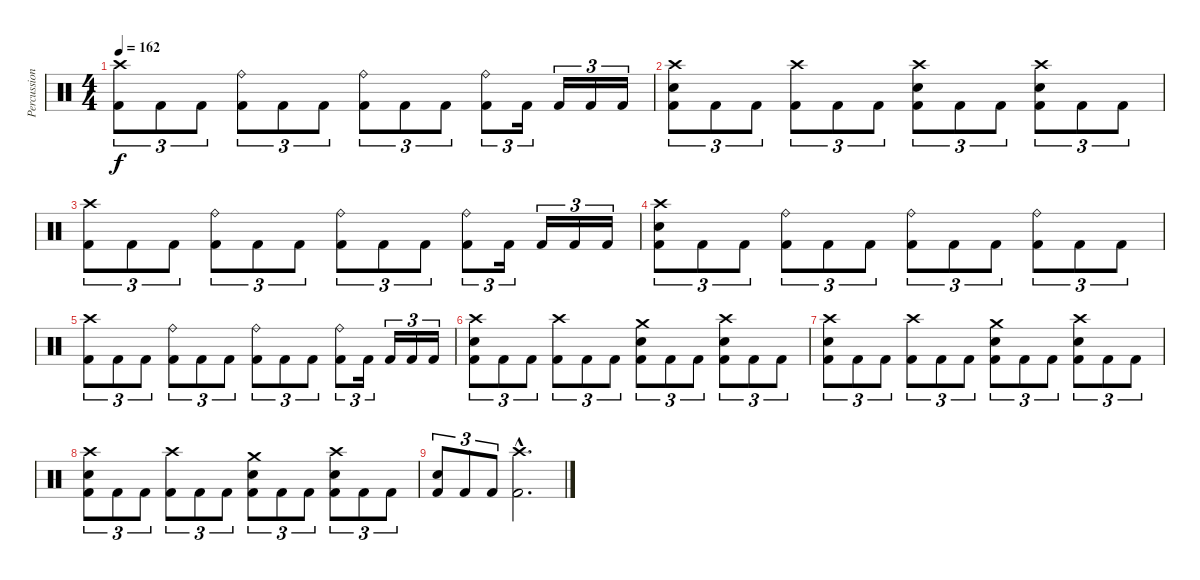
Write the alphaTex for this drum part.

\track ("Percussion" "Percussion") {instrument percussion}
\staff {score}
\articulation defaults
\ts (4 4)
\tempo 162
\clef neutral
\ks c
("Crash high (hit)" "Kick (hit) 2").8{tu (3 2) dy f} "Kick (hit) 2".8{tu (3 2)} "Kick (hit) 2".8{tu (3 2)} ("Ride (bell)" "Kick (hit) 2").8{tu (3 2)} "Kick (hit) 2".8{tu (3 2)} "Kick (hit) 2".8{tu (3 2)} ("Ride (bell)" "Kick (hit) 2").8{tu (3 2)} "Kick (hit) 2".8{tu (3 2)} "Kick (hit) 2".8{tu (3 2)} ("Ride (bell)" "Kick (hit) 2").8{tu (3 2)} "Kick (hit) 2".16{tu (3 2)} "Kick (hit) 2".16{tu (3 2)} "Kick (hit) 2".16{tu (3 2)} "Kick (hit) 2".16{tu (3 2)} |
("Crash high (hit)" "Electric Snare (hit)" "Kick (hit) 2").8{tu (3 2)} "Kick (hit) 2".8{tu (3 2)} "Kick (hit) 2".8{tu (3 2)} ("Crash high (hit)" "Kick (hit) 2").8{tu (3 2)} "Kick (hit) 2".8{tu (3 2)} "Kick (hit) 2".8{tu (3 2)} ("Crash high (hit)" "Electric Snare (hit)" "Kick (hit) 2").8{tu (3 2)} "Kick (hit) 2".8{tu (3 2)} "Kick (hit) 2".8{tu (3 2)} ("Crash high (hit)" "Electric Snare (hit)" "Kick (hit) 2").8{tu (3 2)} "Kick (hit) 2".8{tu (3 2)} "Kick (hit) 2".8{tu (3 2)} |
("Crash high (hit)" "Kick (hit) 2").8{tu (3 2)} "Kick (hit) 2".8{tu (3 2)} "Kick (hit) 2".8{tu (3 2)} ("Ride (bell)" "Kick (hit) 2").8{tu (3 2)} "Kick (hit) 2".8{tu (3 2)} "Kick (hit) 2".8{tu (3 2)} ("Ride (bell)" "Kick (hit) 2").8{tu (3 2)} "Kick (hit) 2".8{tu (3 2)} "Kick (hit) 2".8{tu (3 2)} ("Ride (bell)" "Kick (hit) 2").8{tu (3 2)} "Kick (hit) 2".16{tu (3 2)} "Kick (hit) 2".16{tu (3 2)} "Kick (hit) 2".16{tu (3 2)} "Kick (hit) 2".16{tu (3 2)} |
("Crash high (hit)" "Electric Snare (hit)" "Kick (hit) 2").8{tu (3 2)} "Kick (hit) 2".8{tu (3 2)} "Kick (hit) 2".8{tu (3 2)} ("Ride (bell)" "Kick (hit) 2").8{tu (3 2)} "Kick (hit) 2".8{tu (3 2)} "Kick (hit) 2".8{tu (3 2)} ("Ride (bell)" "Kick (hit) 2").8{tu (3 2)} "Kick (hit) 2".8{tu (3 2)} "Kick (hit) 2".8{tu (3 2)} ("Ride (bell)" "Kick (hit) 2").8{tu (3 2)} "Kick (hit) 2".8{tu (3 2)} "Kick (hit) 2".8{tu (3 2)} |
("Crash high (hit)" "Kick (hit) 2").8{tu (3 2)} "Kick (hit) 2".8{tu (3 2)} "Kick (hit) 2".8{tu (3 2)} ("Ride (bell)" "Kick (hit) 2").8{tu (3 2)} "Kick (hit) 2".8{tu (3 2)} "Kick (hit) 2".8{tu (3 2)} ("Ride (bell)" "Kick (hit) 2").8{tu (3 2)} "Kick (hit) 2".8{tu (3 2)} "Kick (hit) 2".8{tu (3 2)} ("Ride (bell)" "Kick (hit) 2").8{tu (3 2)} "Kick (hit) 2".16{tu (3 2)} "Kick (hit) 2".16{tu (3 2)} "Kick (hit) 2".16{tu (3 2)} "Kick (hit) 2".16{tu (3 2)} |
("Crash high (hit)" "Electric Snare (hit)" "Kick (hit) 2").8{tu (3 2)} "Kick (hit) 2".8{tu (3 2)} "Kick (hit) 2".8{tu (3 2)} ("Crash high (hit)" "Kick (hit) 2").8{tu (3 2)} "Kick (hit) 2".8{tu (3 2)} "Kick (hit) 2".8{tu (3 2)} ("Crash medium (hit)" "Electric Snare (hit)" "Kick (hit) 2").8{tu (3 2)} "Kick (hit) 2".8{tu (3 2)} "Kick (hit) 2".8{tu (3 2)} ("Crash high (hit)" "Electric Snare (hit)" "Kick (hit) 2").8{tu (3 2)} "Kick (hit) 2".8{tu (3 2)} "Kick (hit) 2".8{tu (3 2)} |
("Crash high (hit)" "Electric Snare (hit)" "Kick (hit) 2").8{tu (3 2)} "Kick (hit) 2".8{tu (3 2)} "Kick (hit) 2".8{tu (3 2)} ("Crash high (hit)" "Kick (hit) 2").8{tu (3 2)} "Kick (hit) 2".8{tu (3 2)} "Kick (hit) 2".8{tu (3 2)} ("Crash medium (hit)" "Electric Snare (hit)" "Kick (hit) 2").8{tu (3 2)} "Kick (hit) 2".8{tu (3 2)} "Kick (hit) 2".8{tu (3 2)} ("Crash high (hit)" "Electric Snare (hit)" "Kick (hit) 2").8{tu (3 2)} "Kick (hit) 2".8{tu (3 2)} "Kick (hit) 2".8{tu (3 2)} |
("Crash high (hit)" "Electric Snare (hit)" "Kick (hit) 2").8{tu (3 2)} "Kick (hit) 2".8{tu (3 2)} "Kick (hit) 2".8{tu (3 2)} ("Crash high (hit)" "Kick (hit) 2").8{tu (3 2)} "Kick (hit) 2".8{tu (3 2)} "Kick (hit) 2".8{tu (3 2)} ("Crash medium (hit)" "Electric Snare (hit)" "Kick (hit) 2").8{tu (3 2)} "Kick (hit) 2".8{tu (3 2)} "Kick (hit) 2".8{tu (3 2)} ("Crash high (hit)" "Electric Snare (hit)" "Kick (hit) 2").8{tu (3 2)} "Kick (hit) 2".8{tu (3 2)} "Kick (hit) 2".8{tu (3 2)} |
("Electric Snare (hit)" "Kick (hit) 2").8{tu (3 2)} "Kick (hit) 2".8{tu (3 2)} "Kick (hit) 2".8{tu (3 2)} ("Crash high (hit)"{hac} "Kick (hit) 2"{hac}).2{d}
